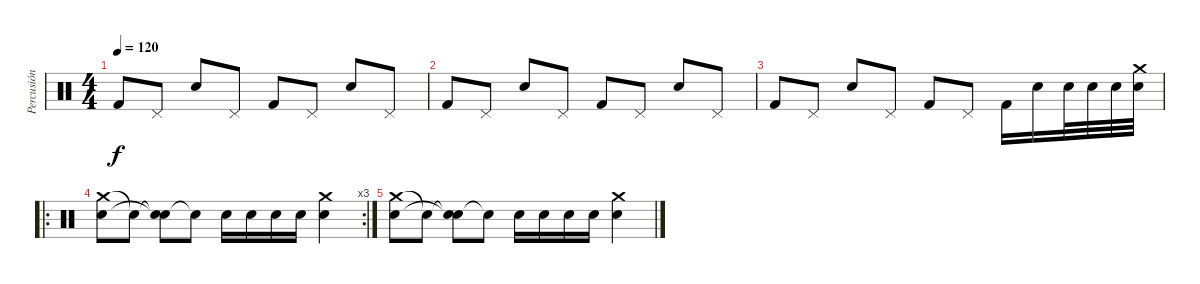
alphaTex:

\track ("Percusión" "Percusión") {instrument percussion}
\staff {score}
\articulation defaults
\ts (4 4)
\tempo 120
\clef neutral
\ks c "Kick (hit) 2".8{dy f} "Pedal Hi-Hat (hit)".8 "Snare (hit) 2".8 "Pedal Hi-Hat (hit)".8 "Kick (hit) 2".8 "Pedal Hi-Hat (hit)".8 "Snare (hit) 2".8 "Pedal Hi-Hat (hit)".8
|
"Kick (hit) 2".8 "Pedal Hi-Hat (hit)".8 "Snare (hit) 2".8 "Pedal Hi-Hat (hit)".8 "Kick (hit) 2".8 "Pedal Hi-Hat (hit)".8 "Snare (hit) 2".8 "Pedal Hi-Hat (hit)".8 |
"Kick (hit) 2".8 "Pedal Hi-Hat (hit)".8 "Snare (hit) 2".8 "Pedal Hi-Hat (hit)".8 "Kick (hit) 2".8 "Pedal Hi-Hat (hit)".8 "Kick (hit) 2".16 "Snare (hit) 2".16 "Snare (hit) 2".32 "Snare (hit) 2".32 "Snare (hit) 2".32 ("Snare (hit) 2" "Crash medium (hit)").32 |
\ro
\rc 3
("Crash medium (hit)" "Snare (hit) 2").8 "Snare (hit)"{t}.8 ("Snare (hit)"{t} "Snare (hit)"{t}).8 "Snare (hit)"{t}.8 "Snare (hit) 2".16 "Snare (hit) 2".16 "Snare (hit) 2".16 "Snare (hit) 2".16 ("Crash medium (hit)" "Snare (hit) 2").4 |
("Crash medium (hit)" "Snare (hit) 2").8 "Snare (hit)"{t}.8 ("Snare (hit)"{t} "Snare (hit)"{t}).8 "Snare (hit)"{t}.8 "Snare (hit) 2".16 "Snare (hit) 2".16 "Snare (hit) 2".16 "Snare (hit) 2".16 ("Crash medium (hit)" "Snare (hit) 2").4
